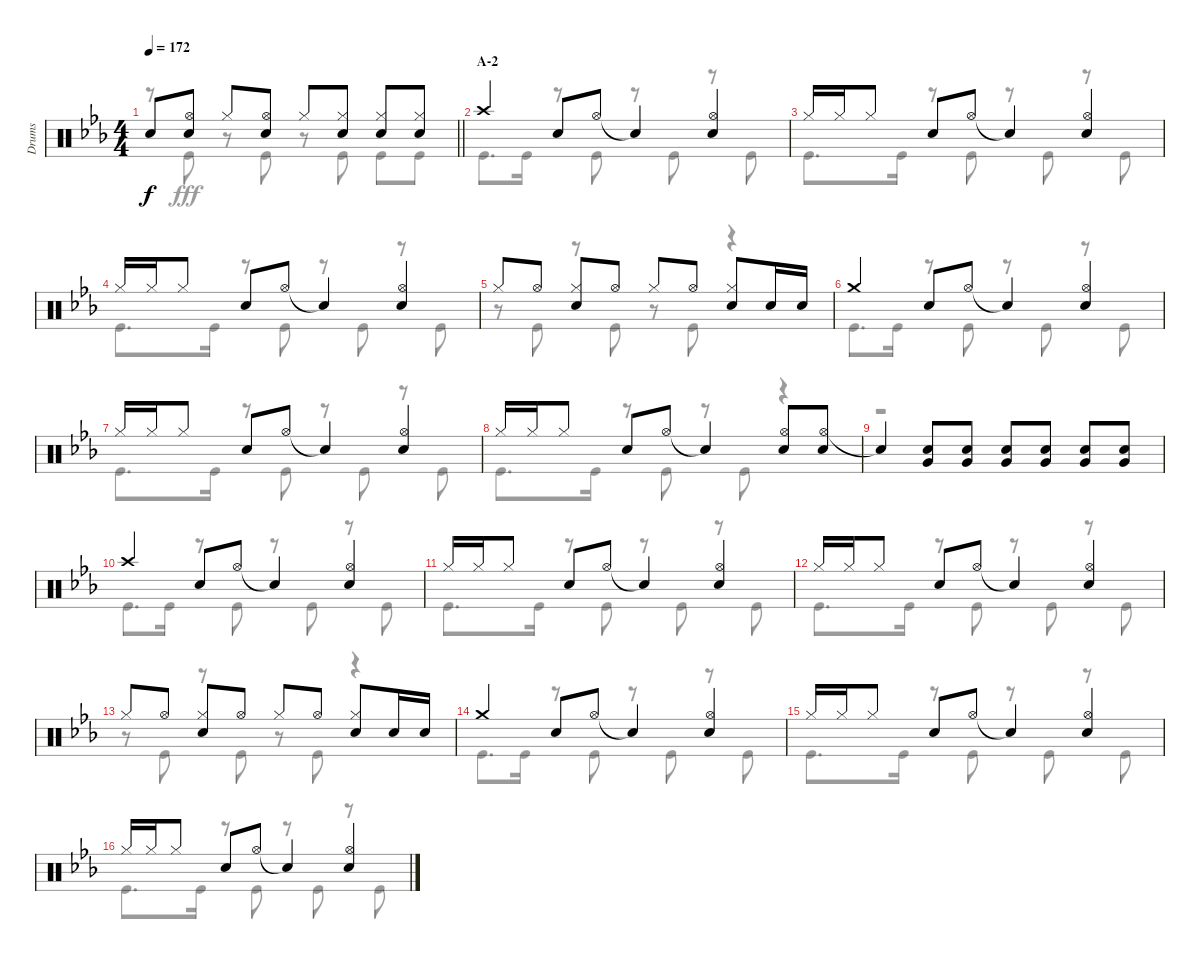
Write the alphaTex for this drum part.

\track ("Drums" "Drums") {instrument percussion}
\staff {score}
\articulation defaults
\voice
\ts (4 4)
\tempo 172
\clef neutral
\barLineRight lightlight
\ks eb "Snare (hit)"{t}.8{dy f}
("Hi-Hat (open)" "Snare (hit) 2").8 "Hi-Hat (closed)".8 ("Hi-Hat (open)" "Snare (hit) 2").8 "Hi-Hat (closed)".8 ("Hi-Hat (closed)" "Snare (hit) 2").8 ("Hi-Hat (closed)" "Snare (hit) 2").8 ("Hi-Hat (closed)" "Snare (hit) 2").8 |
\section ("" "A-2")
"Crash high (hit)".4 "Snare (hit) 2".8 "Hi-Hat (open)".8 "Snare (hit)"{t}.4 ("Hi-Hat (open)" "Snare (hit) 2").4 |
"Hi-Hat (closed)".16 "Hi-Hat (closed)".16 "Hi-Hat (closed)".8 "Snare (hit) 2".8 "Hi-Hat (open)".8 "Snare (hit)"{t}.4 ("Hi-Hat (open)" "Snare (hit) 2").4 |
"Hi-Hat (closed)".16 "Hi-Hat (closed)".16 "Hi-Hat (closed)".8 "Snare (hit) 2".8 "Hi-Hat (open)".8 "Snare (hit)"{t}.4 ("Hi-Hat (open)" "Snare (hit) 2").4 |
"Hi-Hat (closed)".8 "Hi-Hat (open)".8 ("Hi-Hat (closed)" "Snare (hit) 2").8 "Hi-Hat (open)".8 "Hi-Hat (closed)".8 "Hi-Hat (open)".8 ("Hi-Hat (closed)" "Snare (hit) 2").8 "Snare (hit) 2".16 "Snare (hit) 2".16 |
"Crash medium (hit)".4 "Snare (hit) 2".8 "Hi-Hat (open)".8 "Snare (hit)"{t}.4 ("Hi-Hat (open)" "Snare (hit) 2").4 |
"Hi-Hat (closed)".16 "Hi-Hat (closed)".16 "Hi-Hat (closed)".8 "Snare (hit) 2".8 "Hi-Hat (open)".8 "Snare (hit)"{t}.4 ("Hi-Hat (open)" "Snare (hit) 2").4 |
"Hi-Hat (closed)".16 "Hi-Hat (closed)".16 "Hi-Hat (closed)".8 "Snare (hit) 2".8 "Hi-Hat (open)".8 "Snare (hit)"{t}.4 ("Hi-Hat (open)" "Snare (hit) 2").8 ("Hi-Hat (open)" "Snare (hit) 2").8 |
"Snare (hit)"{t}.4 ("Snare (hit) 2" "Very Low Tom (hit)").8 ("Snare (hit) 2" "Very Low Tom (hit)").8 ("Snare (hit) 2" "Very Low Tom (hit)").8 ("Snare (hit) 2" "Very Low Tom (hit)").8 ("Snare (hit) 2" "Very Low Tom (hit)").8 ("Snare (hit) 2" "Very Low Tom (hit)").8 |
"Crash high (hit)".4 "Snare (hit) 2".8 "Hi-Hat (open)".8 "Snare (hit)"{t}.4 ("Hi-Hat (open)" "Snare (hit) 2").4 |
"Hi-Hat (closed)".16 "Hi-Hat (closed)".16 "Hi-Hat (closed)".8 "Snare (hit) 2".8 "Hi-Hat (open)".8 "Snare (hit)"{t}.4 ("Hi-Hat (open)" "Snare (hit) 2").4 |
"Hi-Hat (closed)".16 "Hi-Hat (closed)".16 "Hi-Hat (closed)".8 "Snare (hit) 2".8 "Hi-Hat (open)".8 "Snare (hit)"{t}.4 ("Hi-Hat (open)" "Snare (hit) 2").4 |
"Hi-Hat (closed)".8 "Hi-Hat (open)".8 ("Hi-Hat (closed)" "Snare (hit) 2").8 "Hi-Hat (open)".8 "Hi-Hat (closed)".8 "Hi-Hat (open)".8 ("Hi-Hat (closed)" "Snare (hit) 2").8 "Snare (hit) 2".16 "Snare (hit) 2".16 |
"Crash medium (hit)".4 "Snare (hit) 2".8 "Hi-Hat (open)".8 "Snare (hit)"{t}.4 ("Hi-Hat (open)" "Snare (hit) 2").4 |
"Hi-Hat (closed)".16 "Hi-Hat (closed)".16 "Hi-Hat (closed)".8 "Snare (hit) 2".8 "Hi-Hat (open)".8 "Snare (hit)"{t}.4 ("Hi-Hat (open)" "Snare (hit) 2").4 |
"Hi-Hat (closed)".16 "Hi-Hat (closed)".16 "Hi-Hat (closed)".8 "Snare (hit) 2".8 "Hi-Hat (open)".8 "Snare (hit)"{t}.4 ("Hi-Hat (open)" "Snare (hit) 2").4
\voice
\clef neutral
\ottava regular
\simile none
\barLineRight lightlight
\ks eb
r.8{dy fff} "Kick (hit)".8 r.8 "Kick (hit)".8 r.8 "Kick (hit)".8 "Kick (hit)".8 "Kick (hit)".8 |
"Kick (hit)".8{d} "Kick (hit)".16 r.8 "Kick (hit)".8 r.8 "Kick (hit)".8 r.8 "Kick (hit)".8 |
"Kick (hit)".8{d} "Kick (hit)".16 r.8 "Kick (hit)".8 r.8 "Kick (hit)".8 r.8 "Kick (hit)".8 |
"Kick (hit)".8{d} "Kick (hit)".16 r.8 "Kick (hit)".8 r.8 "Kick (hit)".8 r.8 "Kick (hit)".8 |
r.8 "Kick (hit)".8 r.8 "Kick (hit)".8 r.8 "Kick (hit)".8 r.4 |
"Kick (hit)".8{d} "Kick (hit)".16 r.8 "Kick (hit)".8 r.8 "Kick (hit)".8 r.8 "Kick (hit)".8 |
"Kick (hit)".8{d} "Kick (hit)".16 r.8 "Kick (hit)".8 r.8 "Kick (hit)".8 r.8 "Kick (hit)".8 |
"Kick (hit)".8{d} "Kick (hit)".16 r.8 "Kick (hit)".8 r.8 "Kick (hit)".8 r.4 |
r.1 |
"Kick (hit)".8{d} "Kick (hit)".16 r.8 "Kick (hit)".8 r.8 "Kick (hit)".8 r.8 "Kick (hit)".8 |
"Kick (hit)".8{d} "Kick (hit)".16 r.8 "Kick (hit)".8 r.8 "Kick (hit)".8 r.8 "Kick (hit)".8 |
"Kick (hit)".8{d} "Kick (hit)".16 r.8 "Kick (hit)".8 r.8 "Kick (hit)".8 r.8 "Kick (hit)".8 |
r.8 "Kick (hit)".8 r.8 "Kick (hit)".8 r.8 "Kick (hit)".8 r.4 |
"Kick (hit)".8{d} "Kick (hit)".16 r.8 "Kick (hit)".8 r.8 "Kick (hit)".8 r.8 "Kick (hit)".8 |
"Kick (hit)".8{d} "Kick (hit)".16 r.8 "Kick (hit)".8 r.8 "Kick (hit)".8 r.8 "Kick (hit)".8 |
"Kick (hit)".8{d} "Kick (hit)".16 r.8 "Kick (hit)".8 r.8 "Kick (hit)".8 r.8 "Kick (hit)".8
